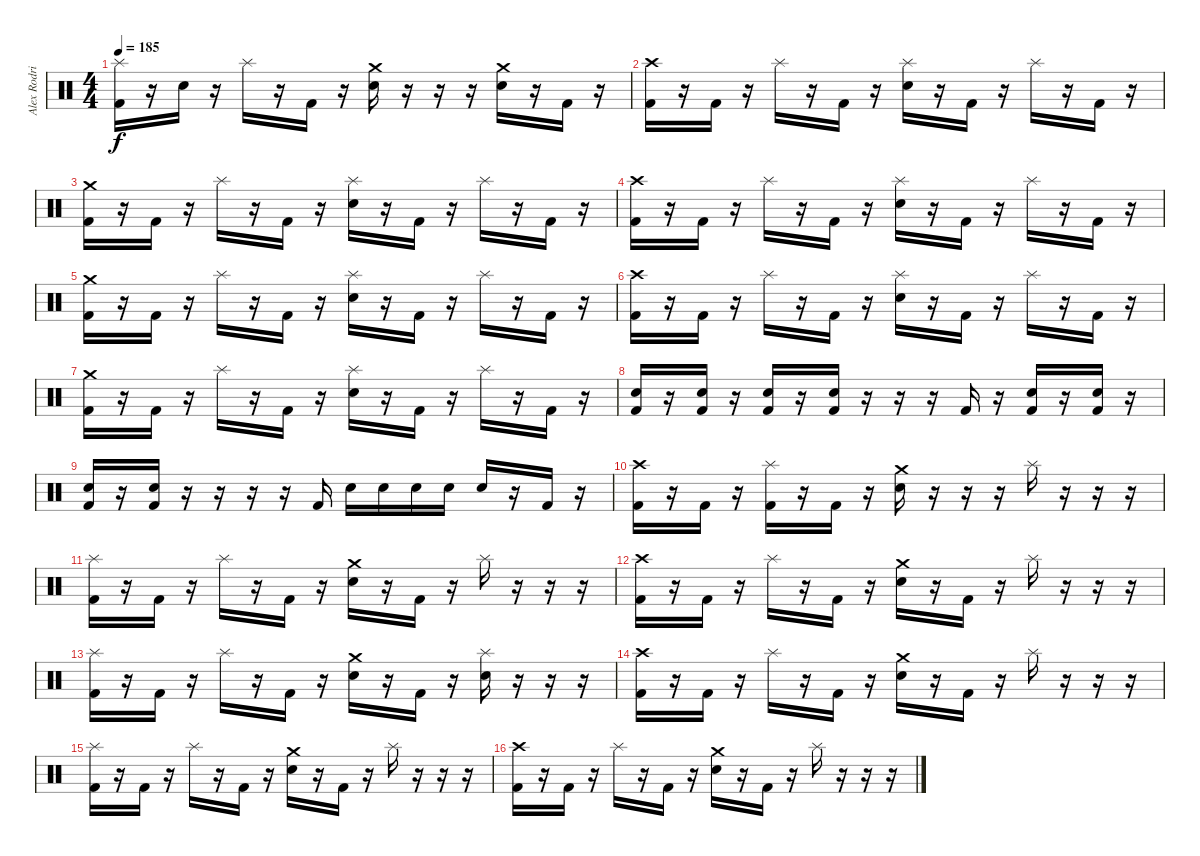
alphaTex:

\track ("Alex Rodriguez" "Alex Rodri") {instrument percussion}
\staff {score}
\articulation defaults
\ts (4 4)
\tempo 185
\clef neutral
\ks c
("Splash (hit)" "Kick (hit) 2").16{dy f} r.16 "Electric Snare (hit)".16 r.16 "Splash (hit)".16 r.16 "Kick (hit) 2".16 r.16 ("Crash medium (hit)" "Electric Snare (hit)").16 r.16 r.16 r.16 ("Crash medium (hit)" "Electric Snare (hit)").16 r.16 "Kick (hit) 2".16 r.16 |
("Crash high (hit)" "Kick (hit) 2").16 r.16 "Kick (hit) 2".16 r.16 "Splash (hit)".16 r.16 "Kick (hit) 2".16 r.16 ("Splash (hit)" "Electric Snare (hit)").16 r.16 "Kick (hit) 2".16 r.16 "Splash (hit)".16 r.16 "Kick (hit) 2".16 r.16 |
("Crash medium (hit)" "Kick (hit) 2").16 r.16 "Kick (hit) 2".16 r.16 "Splash (hit)".16 r.16 "Kick (hit) 2".16 r.16 ("Splash (hit)" "Electric Snare (hit)").16 r.16 "Kick (hit) 2".16 r.16 "Splash (hit)".16 r.16 "Kick (hit) 2".16 r.16 |
("Crash high (hit)" "Kick (hit) 2").16 r.16 "Kick (hit) 2".16 r.16 "Splash (hit)".16 r.16 "Kick (hit) 2".16 r.16 ("Splash (hit)" "Electric Snare (hit)").16 r.16 "Kick (hit) 2".16 r.16 "Splash (hit)".16 r.16 "Kick (hit) 2".16 r.16 |
("Crash medium (hit)" "Kick (hit) 2").16 r.16 "Kick (hit) 2".16 r.16 "Splash (hit)".16 r.16 "Kick (hit) 2".16 r.16 ("Splash (hit)" "Electric Snare (hit)").16 r.16 "Kick (hit) 2".16 r.16 "Splash (hit)".16 r.16 "Kick (hit) 2".16 r.16 |
("Crash high (hit)" "Kick (hit) 2").16 r.16 "Kick (hit) 2".16 r.16 "Splash (hit)".16 r.16 "Kick (hit) 2".16 r.16 ("Splash (hit)" "Electric Snare (hit)").16 r.16 "Kick (hit) 2".16 r.16 "Splash (hit)".16 r.16 "Kick (hit) 2".16 r.16 |
("Crash medium (hit)" "Kick (hit) 2").16 r.16 "Kick (hit) 2".16 r.16 "Splash (hit)".16 r.16 "Kick (hit) 2".16 r.16 ("Splash (hit)" "Electric Snare (hit)").16 r.16 "Kick (hit) 2".16 r.16 "Splash (hit)".16 r.16 "Kick (hit) 2".16 r.16 |
("Electric Snare (hit)" "Kick (hit) 2").16 r.16 ("Electric Snare (hit)" "Kick (hit) 2").16 r.16 ("Electric Snare (hit)" "Kick (hit) 2").16 r.16 ("Electric Snare (hit)" "Kick (hit) 2").16 r.16 r.16 r.16 "Kick (hit) 2".16 r.16 ("Electric Snare (hit)" "Kick (hit) 2").16 r.16 ("Electric Snare (hit)" "Kick (hit) 2").16 r.16 |
("Electric Snare (hit)" "Kick (hit) 2").16 r.16 ("Electric Snare (hit)" "Kick (hit) 2").16 r.16 r.16 r.16 r.16 "Kick (hit) 2".16 "Electric Snare (hit)".16 "Electric Snare (hit)".16 "Electric Snare (hit)".16 "Electric Snare (hit)".16 "Electric Snare (hit)".16 r.16 "Kick (hit) 2".16 r.16 |
("Crash high (hit)" "Kick (hit) 2").16 r.16 "Kick (hit) 2".16 r.16 ("Splash (hit)" "Kick (hit) 2").16 r.16 "Kick (hit) 2".16 r.16 ("Crash medium (hit)" "Electric Snare (hit)").16 r.16 r.16 r.16 "Splash (hit)".16 r.16 r.16 r.16 |
("Splash (hit)" "Kick (hit) 2").16 r.16 "Kick (hit) 2".16 r.16 "Splash (hit)".16 r.16 "Kick (hit) 2".16 r.16 ("Crash medium (hit)" "Electric Snare (hit)").16 r.16 "Kick (hit) 2".16 r.16 "Splash (hit)".16 r.16 r.16 r.16 |
("Crash high (hit)" "Kick (hit) 2").16 r.16 "Kick (hit) 2".16 r.16 "Splash (hit)".16 r.16 "Kick (hit) 2".16 r.16 ("Crash medium (hit)" "Electric Snare (hit)").16 r.16 "Kick (hit) 2".16 r.16 "Splash (hit)".16 r.16 r.16 r.16 |
("Splash (hit)" "Kick (hit) 2").16 r.16 "Kick (hit) 2".16 r.16 "Splash (hit)".16 r.16 "Kick (hit) 2".16 r.16 ("Crash medium (hit)" "Electric Snare (hit)").16 r.16 "Kick (hit) 2".16 r.16 ("Splash (hit)" "Electric Snare (hit)").16 r.16 r.16 r.16 |
("Crash high (hit)" "Kick (hit) 2").16 r.16 "Kick (hit) 2".16 r.16 "Splash (hit)".16 r.16 "Kick (hit) 2".16 r.16 ("Crash medium (hit)" "Electric Snare (hit)").16 r.16 "Kick (hit) 2".16 r.16 "Splash (hit)".16 r.16 r.16 r.16 |
("Splash (hit)" "Kick (hit) 2").16 r.16 "Kick (hit) 2".16 r.16 "Splash (hit)".16 r.16 "Kick (hit) 2".16 r.16 ("Crash medium (hit)" "Electric Snare (hit)").16 r.16 "Kick (hit) 2".16 r.16 "Splash (hit)".16 r.16 r.16 r.16 |
("Crash high (hit)" "Kick (hit) 2").16 r.16 "Kick (hit) 2".16 r.16 "Splash (hit)".16 r.16 "Kick (hit) 2".16 r.16 ("Crash medium (hit)" "Electric Snare (hit)").16 r.16 "Kick (hit) 2".16 r.16 "Splash (hit)".16 r.16 r.16 r.16
